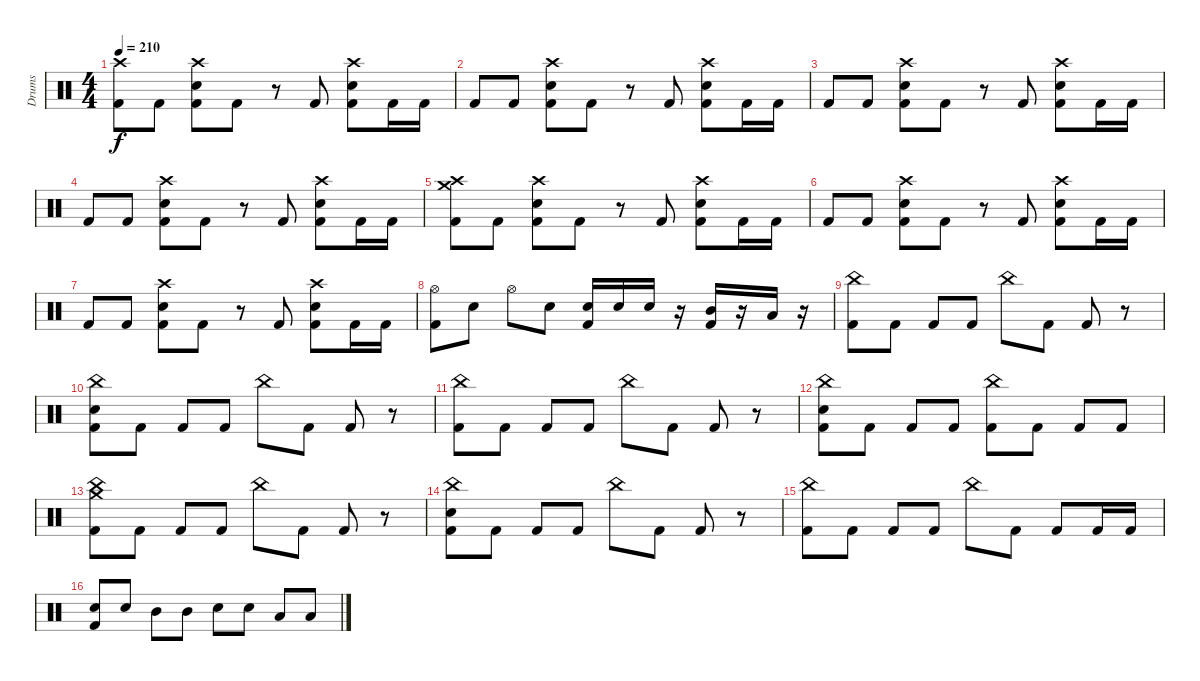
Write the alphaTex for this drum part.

\track ("Drums" "Drums") {instrument percussion}
\staff {score}
\articulation defaults
\ts (4 4)
\tempo 210
\clef neutral
\ks c
("Crash high (hit)" "Kick (hit) 2").8{dy f} "Kick (hit) 2".8 ("Crash high (hit)" "Electric Snare (hit)" "Kick (hit) 2").8 "Kick (hit) 2".8 r.8 "Kick (hit) 2".8 ("Crash high (hit)" "Electric Snare (hit)" "Kick (hit) 2").8 "Kick (hit) 2".16 "Kick (hit) 2".16 |
"Kick (hit) 2".8 "Kick (hit) 2".8 ("Crash high (hit)" "Electric Snare (hit)" "Kick (hit) 2").8 "Kick (hit) 2".8 r.8 "Kick (hit) 2".8 ("Crash high (hit)" "Electric Snare (hit)" "Kick (hit) 2").8 "Kick (hit) 2".16 "Kick (hit) 2".16 |
"Kick (hit) 2".8 "Kick (hit) 2".8 ("Crash high (hit)" "Electric Snare (hit)" "Kick (hit) 2").8 "Kick (hit) 2".8 r.8 "Kick (hit) 2".8 ("Crash high (hit)" "Electric Snare (hit)" "Kick (hit) 2").8 "Kick (hit) 2".16 "Kick (hit) 2".16 |
"Kick (hit) 2".8 "Kick (hit) 2".8 ("Crash high (hit)" "Electric Snare (hit)" "Kick (hit) 2").8 "Kick (hit) 2".8 r.8 "Kick (hit) 2".8 ("Crash high (hit)" "Electric Snare (hit)" "Kick (hit) 2").8 "Kick (hit) 2".16 "Kick (hit) 2".16 |
("Crash high (hit)" "Crash medium (hit)" "Kick (hit) 2").8 "Kick (hit) 2".8 ("Crash high (hit)" "Electric Snare (hit)" "Kick (hit) 2").8 "Kick (hit) 2".8 r.8 "Kick (hit) 2".8 ("Crash high (hit)" "Electric Snare (hit)" "Kick (hit) 2").8 "Kick (hit) 2".16 "Kick (hit) 2".16 |
"Kick (hit) 2".8 "Kick (hit) 2".8 ("Crash high (hit)" "Electric Snare (hit)" "Kick (hit) 2").8 "Kick (hit) 2".8 r.8 "Kick (hit) 2".8 ("Crash high (hit)" "Electric Snare (hit)" "Kick (hit) 2").8 "Kick (hit) 2".16 "Kick (hit) 2".16 |
"Kick (hit) 2".8 "Kick (hit) 2".8 ("Crash high (hit)" "Electric Snare (hit)" "Kick (hit) 2").8 "Kick (hit) 2".8 r.8 "Kick (hit) 2".8 ("Crash high (hit)" "Electric Snare (hit)" "Kick (hit) 2").8 "Kick (hit) 2".16 "Kick (hit) 2".16 |
("Hi-Hat (open)" "Kick (hit) 2").8 "Electric Snare (hit)".8 "Hi-Hat (open)".8 "Electric Snare (hit)".8 ("Electric Snare (hit)" "Kick (hit) 2").16 "Electric Snare (hit)".16 "Electric Snare (hit)".16 r.16 ("Mid Tom (hit)" "Kick (hit) 2").16 r.16 "Low Tom (hit)".16 r.16 |
("China (hit)" "Kick (hit) 2").8 "Kick (hit) 2".8 "Kick (hit) 2".8 "Kick (hit) 2".8 "China (hit)".8 "Kick (hit) 2".8 "Kick (hit) 2".8 r.8 |
("China (hit)" "Electric Snare (hit)" "Kick (hit) 2").8 "Kick (hit) 2".8 "Kick (hit) 2".8 "Kick (hit) 2".8 "China (hit)".8 "Kick (hit) 2".8 "Kick (hit) 2".8 r.8 |
("China (hit)" "Kick (hit) 2").8 "Kick (hit) 2".8 "Kick (hit) 2".8 "Kick (hit) 2".8 "China (hit)".8 "Kick (hit) 2".8 "Kick (hit) 2".8 r.8 |
("China (hit)" "Electric Snare (hit)" "Kick (hit) 2").8 "Kick (hit) 2".8 "Kick (hit) 2".8 "Kick (hit) 2".8 ("China (hit)" "Kick (hit) 2").8 "Kick (hit) 2".8 "Kick (hit) 2".8 "Kick (hit) 2".8 |
("China (hit)" "Crash medium (hit)" "Kick (hit) 2").8 "Kick (hit) 2".8 "Kick (hit) 2".8 "Kick (hit) 2".8 "China (hit)".8 "Kick (hit) 2".8 "Kick (hit) 2".8 r.8 |
("China (hit)" "Electric Snare (hit)" "Kick (hit) 2").8 "Kick (hit) 2".8 "Kick (hit) 2".8 "Kick (hit) 2".8 "China (hit)".8 "Kick (hit) 2".8 "Kick (hit) 2".8 r.8 |
("China (hit)" "Kick (hit) 2").8 "Kick (hit) 2".8 "Kick (hit) 2".8 "Kick (hit) 2".8 "China (hit)".8 "Kick (hit) 2".8 "Kick (hit) 2".8 "Kick (hit) 2".16 "Kick (hit) 2".16 |
("Electric Snare (hit)" "Kick (hit) 2").8 "Electric Snare (hit)".8 "Mid Tom (hit)".8 "Mid Tom (hit)".8 "Electric Snare (hit)".8 "Electric Snare (hit)".8 "Low Tom (hit)".8 "Low Tom (hit)".8
